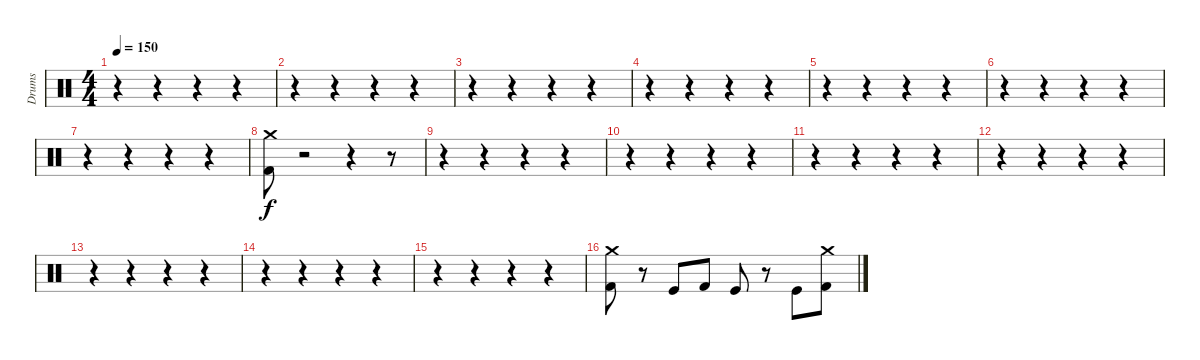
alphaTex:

\track ("Drums" "Drums") {instrument percussion}
\staff {score}
\articulation defaults
\ts (4 4)
\tempo 150
\clef neutral
\ks c
r.4{dy f} r.4 r.4 r.4 |
r.4 r.4 r.4 r.4 |
r.4 r.4 r.4 r.4 |
r.4 r.4 r.4 r.4 |
r.4 r.4 r.4 r.4 |
r.4 r.4 r.4 r.4 |
r.4 r.4 r.4 r.4 |
("Crash medium (hit)" "Kick (hit) 2").8 r.2 r.4 r.8 |
r.4 r.4 r.4 r.4 |
r.4 r.4 r.4 r.4 |
r.4 r.4 r.4 r.4 |
r.4 r.4 r.4 r.4 |
r.4 r.4 r.4 r.4 |
r.4 r.4 r.4 r.4 |
r.4 r.4 r.4 r.4 |
("Crash medium (hit)" "Kick (hit) 2").8 r.8 "Kick (hit)".8 "Kick (hit) 2".8 "Kick (hit)".8 r.8 "Kick (hit)".8 ("Crash medium (hit)" "Kick (hit) 2").8
